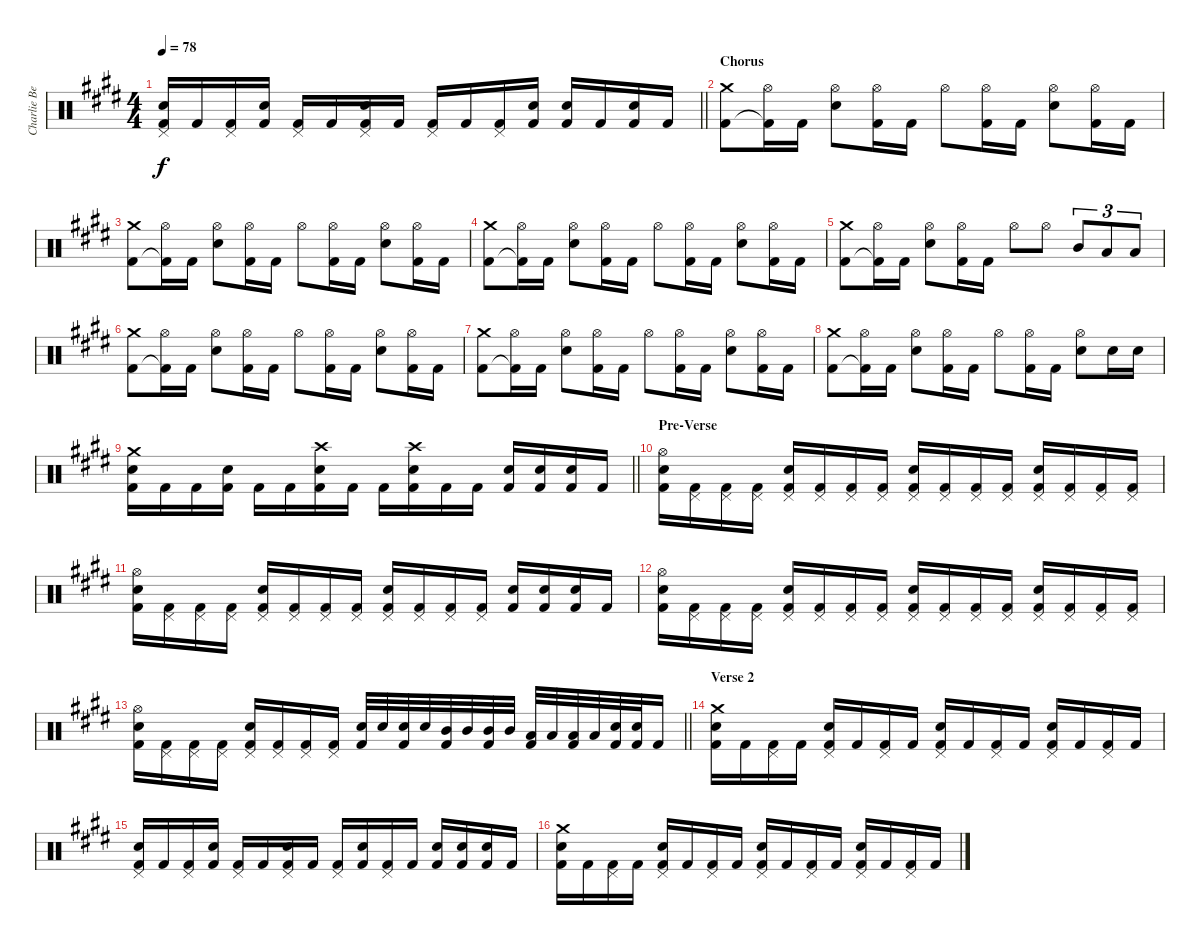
\track ("Charlie Benate " "Charlie Be") {instrument percussion}
\staff {score}
\articulation defaults
\ts (4 4)
\tempo 78
\clef neutral
\barLineRight lightlight
\ks e
("Pedal Hi-Hat (hit)" "Snare (hit) 2" "Kick (hit) 2").16{dy f} "Kick (hit) 2".16 ("Pedal Hi-Hat (hit)" "Kick (hit) 2").16 ("Snare (hit) 2" "Kick (hit) 2").16 ("Pedal Hi-Hat (hit)" "Kick (hit) 2").16 "Kick (hit) 2".16 ("Pedal Hi-Hat (hit)" "Snare (hit) 2" "Kick (hit) 2").16 "Kick (hit) 2".16 ("Pedal Hi-Hat (hit)" "Kick (hit) 2").16 "Kick (hit) 2".16 ("Pedal Hi-Hat (hit)" "Kick (hit) 2").16 ("Snare (hit) 2" "Kick (hit) 2").16 ("Snare (hit) 2" "Kick (hit) 2").16 "Kick (hit) 2".16 ("Snare (hit) 2" "Kick (hit) 2").16 "Kick (hit) 2".16 |
\section ("" "Chorus")
("Crash medium (hit)" "Kick (hit) 2").8 ("Hi-Hat (open)" "Kick (hit) 2"{t}).16 "Kick (hit) 2".16 ("Hi-Hat (open)" "Snare (hit) 2").8 ("Hi-Hat (open)" "Kick (hit) 2").16 "Kick (hit) 2".16 "Hi-Hat (open)".8 ("Hi-Hat (open)" "Kick (hit) 2").16 "Kick (hit) 2".16 ("Hi-Hat (open)" "Snare (hit) 2").8 ("Hi-Hat (open)" "Kick (hit) 2").16 "Kick (hit) 2".16 |
("Crash medium (hit)" "Kick (hit) 2").8 ("Hi-Hat (open)" "Kick (hit) 2"{t}).16 "Kick (hit) 2".16 ("Hi-Hat (open)" "Snare (hit) 2").8 ("Hi-Hat (open)" "Kick (hit) 2").16 "Kick (hit) 2".16 "Hi-Hat (open)".8 ("Hi-Hat (open)" "Kick (hit) 2").16 "Kick (hit) 2".16 ("Hi-Hat (open)" "Snare (hit) 2").8 ("Hi-Hat (open)" "Kick (hit) 2").16 "Kick (hit) 2".16 |
("Crash medium (hit)" "Kick (hit) 2").8 ("Hi-Hat (open)" "Kick (hit) 2"{t}).16 "Kick (hit) 2".16 ("Hi-Hat (open)" "Snare (hit) 2").8 ("Hi-Hat (open)" "Kick (hit) 2").16 "Kick (hit) 2".16 "Hi-Hat (open)".8 ("Hi-Hat (open)" "Kick (hit) 2").16 "Kick (hit) 2".16 ("Hi-Hat (open)" "Snare (hit) 2").8 ("Hi-Hat (open)" "Kick (hit) 2").16 "Kick (hit) 2".16 |
("Crash medium (hit)" "Kick (hit) 2").8 ("Hi-Hat (open)" "Kick (hit) 2"{t}).16 "Kick (hit) 2".16 ("Hi-Hat (open)" "Snare (hit) 2").8 ("Hi-Hat (open)" "Kick (hit) 2").16 "Kick (hit) 2".16 "Hi-Hat (open)".8 "Hi-Hat (open)".8 "Mid Tom (hit)".8{tu (3 2)} "Low Tom (hit)".8{tu (3 2)} "Low Tom (hit)".8{tu (3 2)} |
("Crash medium (hit)" "Kick (hit) 2").8 ("Hi-Hat (open)" "Kick (hit) 2"{t}).16 "Kick (hit) 2".16 ("Hi-Hat (open)" "Snare (hit) 2").8 ("Hi-Hat (open)" "Kick (hit) 2").16 "Kick (hit) 2".16 "Hi-Hat (open)".8 ("Hi-Hat (open)" "Kick (hit) 2").16 "Kick (hit) 2".16 ("Hi-Hat (open)" "Snare (hit) 2").8 ("Hi-Hat (open)" "Kick (hit) 2").16 "Kick (hit) 2".16 |
("Crash medium (hit)" "Kick (hit) 2").8 ("Hi-Hat (open)" "Kick (hit) 2"{t}).16 "Kick (hit) 2".16 ("Hi-Hat (open)" "Snare (hit) 2").8 ("Hi-Hat (open)" "Kick (hit) 2").16 "Kick (hit) 2".16 "Hi-Hat (open)".8 ("Hi-Hat (open)" "Kick (hit) 2").16 "Kick (hit) 2".16 ("Hi-Hat (open)" "Snare (hit) 2").8 ("Hi-Hat (open)" "Kick (hit) 2").16 "Kick (hit) 2".16 |
("Crash medium (hit)" "Kick (hit) 2").8 ("Hi-Hat (open)" "Kick (hit) 2"{t}).16 "Kick (hit) 2".16 ("Hi-Hat (open)" "Snare (hit) 2").8 ("Hi-Hat (open)" "Kick (hit) 2").16 "Kick (hit) 2".16 "Hi-Hat (open)".8 ("Hi-Hat (open)" "Kick (hit) 2").16 "Kick (hit) 2".16 ("Hi-Hat (open)" "Snare (hit) 2").8 "Snare (hit) 2".16 "Snare (hit) 2".16 |
\barLineRight lightlight
("Crash medium (hit)" "Snare (hit) 2" "Kick (hit) 2").16 "Kick (hit) 2".16 "Kick (hit) 2".16 ("Snare (hit) 2" "Kick (hit) 2").16 "Kick (hit) 2".16 "Kick (hit) 2".16 ("Crash high (hit)" "Snare (hit) 2" "Kick (hit) 2").16 "Kick (hit) 2".16 "Kick (hit) 2".16 ("Crash high (hit)" "Snare (hit) 2" "Kick (hit) 2").16 "Kick (hit) 2".16 "Kick (hit) 2".16 ("Snare (hit) 2" "Kick (hit) 2").16 ("Snare (hit) 2" "Kick (hit) 2").16 ("Snare (hit) 2" "Kick (hit) 2").16 "Kick (hit) 2".16 |
\section ("" "Pre-Verse")
("Hi-Hat (open)" "Snare (hit) 2" "Kick (hit) 2").16 ("Pedal Hi-Hat (hit)" "Kick (hit) 2").16 ("Pedal Hi-Hat (hit)" "Kick (hit) 2").16 ("Pedal Hi-Hat (hit)" "Kick (hit) 2").16 ("Pedal Hi-Hat (hit)" "Snare (hit) 2" "Kick (hit) 2").16 ("Pedal Hi-Hat (hit)" "Kick (hit) 2").16 ("Pedal Hi-Hat (hit)" "Kick (hit) 2").16 ("Pedal Hi-Hat (hit)" "Kick (hit) 2").16 ("Pedal Hi-Hat (hit)" "Snare (hit) 2" "Kick (hit) 2").16 ("Pedal Hi-Hat (hit)" "Kick (hit) 2").16 ("Pedal Hi-Hat (hit)" "Kick (hit) 2").16 ("Pedal Hi-Hat (hit)" "Kick (hit) 2").16 ("Pedal Hi-Hat (hit)" "Snare (hit) 2" "Kick (hit) 2").16 ("Pedal Hi-Hat (hit)" "Kick (hit) 2").16 ("Pedal Hi-Hat (hit)" "Kick (hit) 2").16 ("Pedal Hi-Hat (hit)" "Kick (hit) 2").16 |
("Hi-Hat (open)" "Snare (hit) 2" "Kick (hit) 2").16 ("Pedal Hi-Hat (hit)" "Kick (hit) 2").16 ("Pedal Hi-Hat (hit)" "Kick (hit) 2").16 ("Pedal Hi-Hat (hit)" "Kick (hit) 2").16 ("Pedal Hi-Hat (hit)" "Snare (hit) 2" "Kick (hit) 2").16 ("Pedal Hi-Hat (hit)" "Kick (hit) 2").16 ("Pedal Hi-Hat (hit)" "Kick (hit) 2").16 ("Pedal Hi-Hat (hit)" "Kick (hit) 2").16 ("Pedal Hi-Hat (hit)" "Snare (hit) 2" "Kick (hit) 2").16 ("Pedal Hi-Hat (hit)" "Kick (hit) 2").16 ("Pedal Hi-Hat (hit)" "Kick (hit) 2").16 ("Pedal Hi-Hat (hit)" "Kick (hit) 2").16 ("Snare (hit) 2" "Kick (hit) 2").16 ("Snare (hit) 2" "Kick (hit) 2").16 ("Snare (hit) 2" "Kick (hit) 2").16 "Kick (hit) 2".16 |
("Hi-Hat (open)" "Snare (hit) 2" "Kick (hit) 2").16 ("Pedal Hi-Hat (hit)" "Kick (hit) 2").16 ("Pedal Hi-Hat (hit)" "Kick (hit) 2").16 ("Pedal Hi-Hat (hit)" "Kick (hit) 2").16 ("Pedal Hi-Hat (hit)" "Snare (hit) 2" "Kick (hit) 2").16 ("Pedal Hi-Hat (hit)" "Kick (hit) 2").16 ("Pedal Hi-Hat (hit)" "Kick (hit) 2").16 ("Pedal Hi-Hat (hit)" "Kick (hit) 2").16 ("Pedal Hi-Hat (hit)" "Snare (hit) 2" "Kick (hit) 2").16 ("Pedal Hi-Hat (hit)" "Kick (hit) 2").16 ("Pedal Hi-Hat (hit)" "Kick (hit) 2").16 ("Pedal Hi-Hat (hit)" "Kick (hit) 2").16 ("Pedal Hi-Hat (hit)" "Snare (hit) 2" "Kick (hit) 2").16 ("Pedal Hi-Hat (hit)" "Kick (hit) 2").16 ("Pedal Hi-Hat (hit)" "Kick (hit) 2").16 ("Pedal Hi-Hat (hit)" "Kick (hit) 2").16 |
\barLineRight lightlight
("Hi-Hat (open)" "Snare (hit) 2" "Kick (hit) 2").16 ("Pedal Hi-Hat (hit)" "Kick (hit) 2").16 ("Pedal Hi-Hat (hit)" "Kick (hit) 2").16 ("Pedal Hi-Hat (hit)" "Kick (hit) 2").16 ("Pedal Hi-Hat (hit)" "Snare (hit) 2" "Kick (hit) 2").16 ("Pedal Hi-Hat (hit)" "Kick (hit) 2").16 ("Pedal Hi-Hat (hit)" "Kick (hit) 2").16 ("Pedal Hi-Hat (hit)" "Kick (hit) 2").16 ("Snare (hit) 2" "Kick (hit) 2").32 "Snare (hit) 2".32 ("Snare (hit) 2" "Kick (hit) 2").32 "Snare (hit) 2".32 ("Mid Tom (hit)" "Kick (hit) 2").32 "Mid Tom (hit)".32 ("Mid Tom (hit)" "Kick (hit) 2").32 "Mid Tom (hit)".32 ("Low Tom (hit)" "Kick (hit) 2").32 "Low Tom (hit)".32 ("Low Tom (hit)" "Kick (hit) 2").32 "Low Tom (hit)".32 ("Snare (hit) 2" "Kick (hit) 2").32 ("Snare (hit) 2" "Kick (hit) 2").32 "Kick (hit) 2".16 |
\section ("" "Verse 2")
("Crash medium (hit)" "Snare (hit) 2" "Kick (hit) 2").16 "Kick (hit) 2".16 ("Pedal Hi-Hat (hit)" "Kick (hit) 2").16 "Kick (hit) 2".16 ("Pedal Hi-Hat (hit)" "Snare (hit) 2" "Kick (hit) 2").16 "Kick (hit) 2".16 ("Pedal Hi-Hat (hit)" "Kick (hit) 2").16 "Kick (hit) 2".16 ("Pedal Hi-Hat (hit)" "Snare (hit) 2" "Kick (hit) 2").16 "Kick (hit) 2".16 ("Pedal Hi-Hat (hit)" "Kick (hit) 2").16 "Kick (hit) 2".16 ("Pedal Hi-Hat (hit)" "Snare (hit) 2" "Kick (hit) 2").16 "Kick (hit) 2".16 ("Pedal Hi-Hat (hit)" "Kick (hit) 2").16 "Kick (hit) 2".16 |
("Pedal Hi-Hat (hit)" "Snare (hit) 2" "Kick (hit) 2").16 "Kick (hit) 2".16 ("Pedal Hi-Hat (hit)" "Kick (hit) 2").16 ("Snare (hit) 2" "Kick (hit) 2").16 ("Pedal Hi-Hat (hit)" "Kick (hit) 2").16 "Kick (hit) 2".16 ("Pedal Hi-Hat (hit)" "Snare (hit) 2" "Kick (hit) 2").16 "Kick (hit) 2".16 ("Pedal Hi-Hat (hit)" "Kick (hit) 2").16 ("Snare (hit) 2" "Kick (hit) 2").16 ("Pedal Hi-Hat (hit)" "Kick (hit) 2").16 "Kick (hit) 2".16 ("Snare (hit) 2" "Kick (hit) 2").16 ("Snare (hit) 2" "Kick (hit) 2").16 ("Snare (hit) 2" "Kick (hit) 2").16 "Kick (hit) 2".16 |
("Crash medium (hit)" "Snare (hit) 2" "Kick (hit) 2").16 "Kick (hit) 2".16 ("Pedal Hi-Hat (hit)" "Kick (hit) 2").16 "Kick (hit) 2".16 ("Pedal Hi-Hat (hit)" "Snare (hit) 2" "Kick (hit) 2").16 "Kick (hit) 2".16 ("Pedal Hi-Hat (hit)" "Kick (hit) 2").16 "Kick (hit) 2".16 ("Pedal Hi-Hat (hit)" "Snare (hit) 2" "Kick (hit) 2").16 "Kick (hit) 2".16 ("Pedal Hi-Hat (hit)" "Kick (hit) 2").16 "Kick (hit) 2".16 ("Pedal Hi-Hat (hit)" "Snare (hit) 2" "Kick (hit) 2").16 "Kick (hit) 2".16 ("Pedal Hi-Hat (hit)" "Kick (hit) 2").16 "Kick (hit) 2".16
